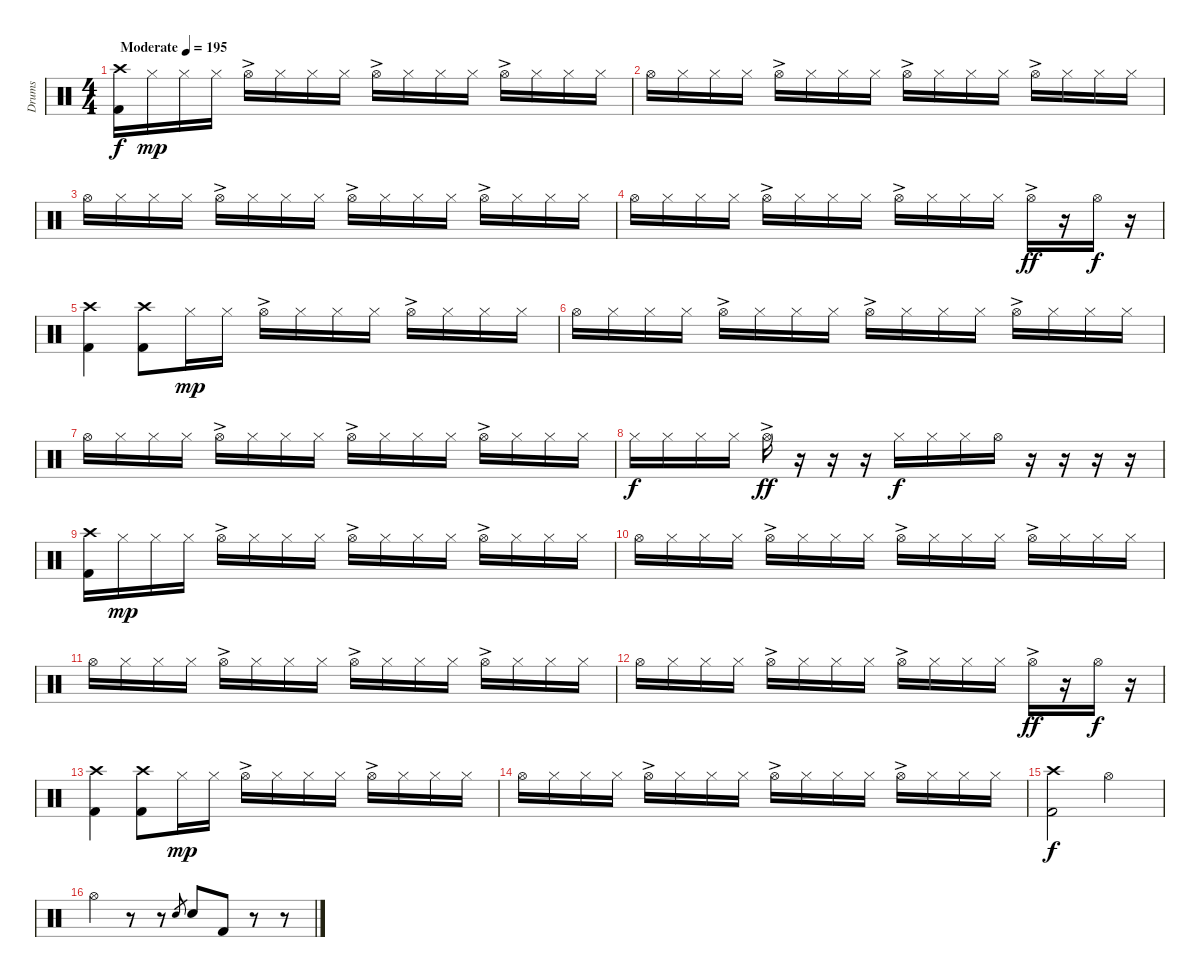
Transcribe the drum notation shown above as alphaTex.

\track ("Drums" "Drums") {instrument percussion}
\staff {score}
\articulation defaults
\ts (4 4)
\tempo (195 "Moderate")
\clef neutral
\ks c
("Crash high (hit)" "Kick (hit) 2").16{dy f} "Hi-Hat (closed)".16{dy mp} "Hi-Hat (closed)".16 "Hi-Hat (closed)".16 "Hi-Hat (open)"{ac}.16 "Hi-Hat (closed)".16 "Hi-Hat (closed)".16 "Hi-Hat (closed)".16 "Hi-Hat (open)"{ac}.16 "Hi-Hat (closed)".16 "Hi-Hat (closed)".16 "Hi-Hat (closed)".16 "Hi-Hat (open)"{ac}.16 "Hi-Hat (closed)".16 "Hi-Hat (closed)".16 "Hi-Hat (closed)".16 |
"Hi-Hat (open)".16 "Hi-Hat (closed)".16 "Hi-Hat (closed)".16 "Hi-Hat (closed)".16 "Hi-Hat (open)"{ac}.16 "Hi-Hat (closed)".16 "Hi-Hat (closed)".16 "Hi-Hat (closed)".16 "Hi-Hat (open)"{ac}.16 "Hi-Hat (closed)".16 "Hi-Hat (closed)".16 "Hi-Hat (closed)".16 "Hi-Hat (open)"{ac}.16 "Hi-Hat (closed)".16 "Hi-Hat (closed)".16 "Hi-Hat (closed)".16 |
"Hi-Hat (open)".16 "Hi-Hat (closed)".16 "Hi-Hat (closed)".16 "Hi-Hat (closed)".16 "Hi-Hat (open)"{ac}.16 "Hi-Hat (closed)".16 "Hi-Hat (closed)".16 "Hi-Hat (closed)".16 "Hi-Hat (open)"{ac}.16 "Hi-Hat (closed)".16 "Hi-Hat (closed)".16 "Hi-Hat (closed)".16 "Hi-Hat (open)"{ac}.16 "Hi-Hat (closed)".16 "Hi-Hat (closed)".16 "Hi-Hat (closed)".16 |
"Hi-Hat (open)".16 "Hi-Hat (closed)".16 "Hi-Hat (closed)".16 "Hi-Hat (closed)".16 "Hi-Hat (open)"{ac}.16 "Hi-Hat (closed)".16 "Hi-Hat (closed)".16 "Hi-Hat (closed)".16 "Hi-Hat (open)"{ac}.16 "Hi-Hat (closed)".16 "Hi-Hat (closed)".16 "Hi-Hat (closed)".16 "Hi-Hat (open)"{ac}.16{dy ff} r.16 "Hi-Hat (open)".16{dy f} r.16 |
("Crash high (hit)" "Kick (hit) 2").4 ("Crash high (hit)" "Kick (hit) 2").8 "Hi-Hat (closed)".16{dy mp} "Hi-Hat (closed)".16 "Hi-Hat (open)"{ac}.16 "Hi-Hat (closed)".16 "Hi-Hat (closed)".16 "Hi-Hat (closed)".16 "Hi-Hat (open)"{ac}.16 "Hi-Hat (closed)".16 "Hi-Hat (closed)".16 "Hi-Hat (closed)".16 |
"Hi-Hat (open)".16 "Hi-Hat (closed)".16 "Hi-Hat (closed)".16 "Hi-Hat (closed)".16 "Hi-Hat (open)"{ac}.16 "Hi-Hat (closed)".16 "Hi-Hat (closed)".16 "Hi-Hat (closed)".16 "Hi-Hat (open)"{ac}.16 "Hi-Hat (closed)".16 "Hi-Hat (closed)".16 "Hi-Hat (closed)".16 "Hi-Hat (open)"{ac}.16 "Hi-Hat (closed)".16 "Hi-Hat (closed)".16 "Hi-Hat (closed)".16 |
"Hi-Hat (open)".16 "Hi-Hat (closed)".16 "Hi-Hat (closed)".16 "Hi-Hat (closed)".16 "Hi-Hat (open)"{ac}.16 "Hi-Hat (closed)".16 "Hi-Hat (closed)".16 "Hi-Hat (closed)".16 "Hi-Hat (open)"{ac}.16 "Hi-Hat (closed)".16 "Hi-Hat (closed)".16 "Hi-Hat (closed)".16 "Hi-Hat (open)"{ac}.16 "Hi-Hat (closed)".16 "Hi-Hat (closed)".16 "Hi-Hat (closed)".16 |
"Hi-Hat (closed)".16{dy f} "Hi-Hat (closed)".16 "Hi-Hat (closed)".16 "Hi-Hat (closed)".16 "Hi-Hat (open)"{ac}.16{dy ff} r.16 r.16 r.16 "Hi-Hat (closed)".16{dy f} "Hi-Hat (closed)".16 "Hi-Hat (closed)".16 "Hi-Hat (open)".16 r.16 r.16 r.16 r.16 |
("Crash high (hit)" "Kick (hit) 2").16 "Hi-Hat (closed)".16{dy mp} "Hi-Hat (closed)".16 "Hi-Hat (closed)".16 "Hi-Hat (open)"{ac}.16 "Hi-Hat (closed)".16 "Hi-Hat (closed)".16 "Hi-Hat (closed)".16 "Hi-Hat (open)"{ac}.16 "Hi-Hat (closed)".16 "Hi-Hat (closed)".16 "Hi-Hat (closed)".16 "Hi-Hat (open)"{ac}.16 "Hi-Hat (closed)".16 "Hi-Hat (closed)".16 "Hi-Hat (closed)".16 |
"Hi-Hat (open)".16 "Hi-Hat (closed)".16 "Hi-Hat (closed)".16 "Hi-Hat (closed)".16 "Hi-Hat (open)"{ac}.16 "Hi-Hat (closed)".16 "Hi-Hat (closed)".16 "Hi-Hat (closed)".16 "Hi-Hat (open)"{ac}.16 "Hi-Hat (closed)".16 "Hi-Hat (closed)".16 "Hi-Hat (closed)".16 "Hi-Hat (open)"{ac}.16 "Hi-Hat (closed)".16 "Hi-Hat (closed)".16 "Hi-Hat (closed)".16 |
"Hi-Hat (open)".16 "Hi-Hat (closed)".16 "Hi-Hat (closed)".16 "Hi-Hat (closed)".16 "Hi-Hat (open)"{ac}.16 "Hi-Hat (closed)".16 "Hi-Hat (closed)".16 "Hi-Hat (closed)".16 "Hi-Hat (open)"{ac}.16 "Hi-Hat (closed)".16 "Hi-Hat (closed)".16 "Hi-Hat (closed)".16 "Hi-Hat (open)"{ac}.16 "Hi-Hat (closed)".16 "Hi-Hat (closed)".16 "Hi-Hat (closed)".16 |
"Hi-Hat (open)".16 "Hi-Hat (closed)".16 "Hi-Hat (closed)".16 "Hi-Hat (closed)".16 "Hi-Hat (open)"{ac}.16 "Hi-Hat (closed)".16 "Hi-Hat (closed)".16 "Hi-Hat (closed)".16 "Hi-Hat (open)"{ac}.16 "Hi-Hat (closed)".16 "Hi-Hat (closed)".16 "Hi-Hat (closed)".16 "Hi-Hat (open)"{ac}.16{dy ff} r.16 "Hi-Hat (open)".16{dy f} r.16 |
("Crash high (hit)" "Kick (hit) 2").4 ("Crash high (hit)" "Kick (hit) 2").8 "Hi-Hat (closed)".16{dy mp} "Hi-Hat (closed)".16 "Hi-Hat (open)"{ac}.16 "Hi-Hat (closed)".16 "Hi-Hat (closed)".16 "Hi-Hat (closed)".16 "Hi-Hat (open)"{ac}.16 "Hi-Hat (closed)".16 "Hi-Hat (closed)".16 "Hi-Hat (closed)".16 |
"Hi-Hat (open)".16 "Hi-Hat (closed)".16 "Hi-Hat (closed)".16 "Hi-Hat (closed)".16 "Hi-Hat (open)"{ac}.16 "Hi-Hat (closed)".16 "Hi-Hat (closed)".16 "Hi-Hat (closed)".16 "Hi-Hat (open)"{ac}.16 "Hi-Hat (closed)".16 "Hi-Hat (closed)".16 "Hi-Hat (closed)".16 "Hi-Hat (open)"{ac}.16 "Hi-Hat (closed)".16 "Hi-Hat (closed)".16 "Hi-Hat (closed)".16 |
("Crash high (hit)" "Kick (hit) 2").2{dy f} "Hi-Hat (open)".2 |
"Hi-Hat (open)".4 r.8 r.8 "Electric Snare (hit)".8{gr} "Electric Snare (hit)".8 "Kick (hit) 2".8 r.8 r.8
